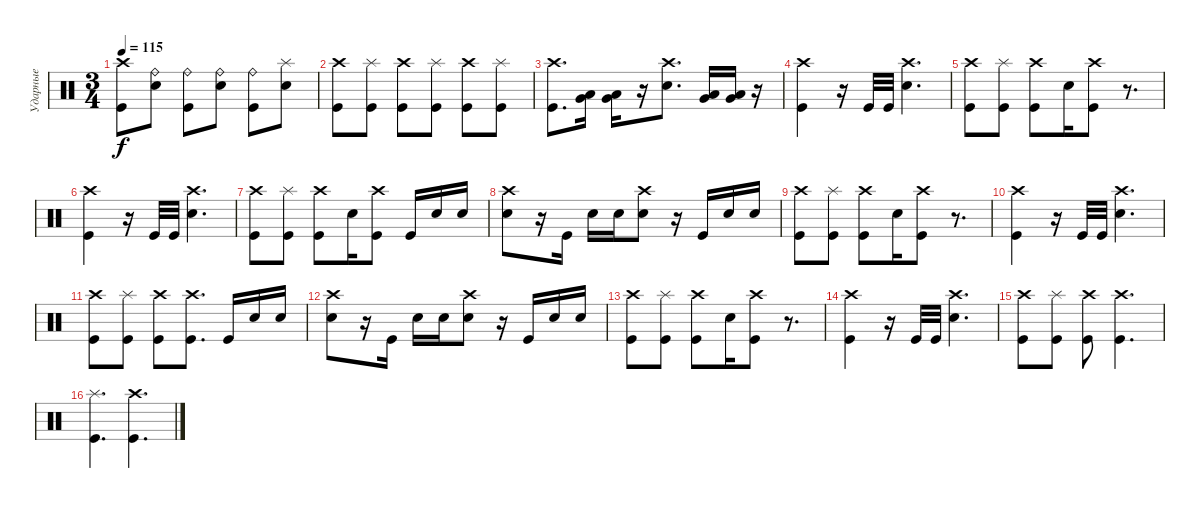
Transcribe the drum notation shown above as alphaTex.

\track ("Ударные" "Ударные") {instrument percussion}
\staff {score}
\articulation defaults
\ts (3 4)
\tempo 115
\clef neutral
\ks c
("Crash high (hit)" "Kick (hit)").8{dy f} ("Ride (bell)" "Snare (hit) 2").8 ("Ride (bell)" "Kick (hit)").8 ("Ride (bell)" "Snare (hit) 2").8 ("Ride (bell)" "Kick (hit)").8 ("Splash (hit)" "Snare (hit) 2").8 |
("Crash high (hit)" "Kick (hit)").8 ("Splash (hit)" "Kick (hit)").8 ("Crash high (hit)" "Kick (hit)").8 ("Splash (hit)" "Kick (hit)").8 ("Crash high (hit)" "Kick (hit)").8 ("Splash (hit)" "Kick (hit)").8 |
("Crash high (hit)" "Kick (hit)").8{d} ("Low Tom (hit)" "Very Low Tom (hit)").16 ("Low Tom (hit)" "Very Low Tom (hit)").16 r.16 ("Crash high (hit)" "Snare (hit) 2").8{d} ("Very Low Tom (hit)" "Low Floor Tom (hit)").16 ("Very Low Tom (hit)" "Low Floor Tom (hit)").16 r.16 |
("Crash high (hit)" "Kick (hit)").4 r.16 "Kick (hit)".32 "Kick (hit)".32 ("Crash high (hit)" "Snare (hit) 2").4{d} |
("Crash high (hit)" "Kick (hit)").8 ("Splash (hit)" "Kick (hit)").8 ("Crash high (hit)" "Kick (hit)").8 "Snare (hit) 2".16 ("Crash high (hit)" "Kick (hit)").8 r.8{d} |
("Crash high (hit)" "Kick (hit)").4 r.16 "Kick (hit)".32 "Kick (hit)".32 ("Crash high (hit)" "Snare (hit) 2").4{d} |
("Crash high (hit)" "Kick (hit)").8 ("Splash (hit)" "Kick (hit)").8 ("Crash high (hit)" "Kick (hit)").8 "Snare (hit) 2".16 ("Crash high (hit)" "Kick (hit)").8 "Kick (hit)".16 "Snare (hit) 2".16 "Snare (hit) 2".16 |
("Crash high (hit)" "Snare (hit) 2").8 r.16 "Kick (hit)".16 "Snare (hit) 2".16 "Snare (hit) 2".16 ("Crash high (hit)" "Snare (hit) 2").8 r.16 "Kick (hit)".16 "Snare (hit) 2".16 "Snare (hit) 2".16 |
("Crash high (hit)" "Kick (hit)").8 ("Splash (hit)" "Kick (hit)").8 ("Crash high (hit)" "Kick (hit)").8 "Snare (hit) 2".16 ("Crash high (hit)" "Kick (hit)").8 r.8{d} |
("Crash high (hit)" "Kick (hit)").4 r.16 "Kick (hit)".32 "Kick (hit)".32 ("Crash high (hit)" "Snare (hit) 2").4{d} |
("Crash high (hit)" "Kick (hit)").8 ("Splash (hit)" "Kick (hit)").8 ("Crash high (hit)" "Kick (hit)").8 ("Crash high (hit)" "Kick (hit)").8{d} "Kick (hit)".16 "Snare (hit) 2".16 "Snare (hit) 2".16 |
("Crash high (hit)" "Snare (hit) 2").8 r.16 "Kick (hit)".16 "Snare (hit) 2".16 "Snare (hit) 2".16 ("Crash high (hit)" "Snare (hit) 2").8 r.16 "Kick (hit)".16 "Snare (hit) 2".16 "Snare (hit) 2".16 |
("Crash high (hit)" "Kick (hit)").8 ("Splash (hit)" "Kick (hit)").8 ("Crash high (hit)" "Kick (hit)").8 "Snare (hit) 2".16 ("Crash high (hit)" "Kick (hit)").8 r.8{d} |
("Crash high (hit)" "Kick (hit)").4 r.16 "Kick (hit)".32 "Kick (hit)".32 ("Crash high (hit)" "Snare (hit) 2").4{d} |
("Crash high (hit)" "Kick (hit)").8 ("Splash (hit)" "Kick (hit)").8 ("Crash high (hit)" "Kick (hit)").8 ("Crash high (hit)" "Kick (hit)").4{d} |
("Splash (hit)" "Kick (hit)").4{d} ("Crash high (hit)" "Kick (hit)").4{d}
